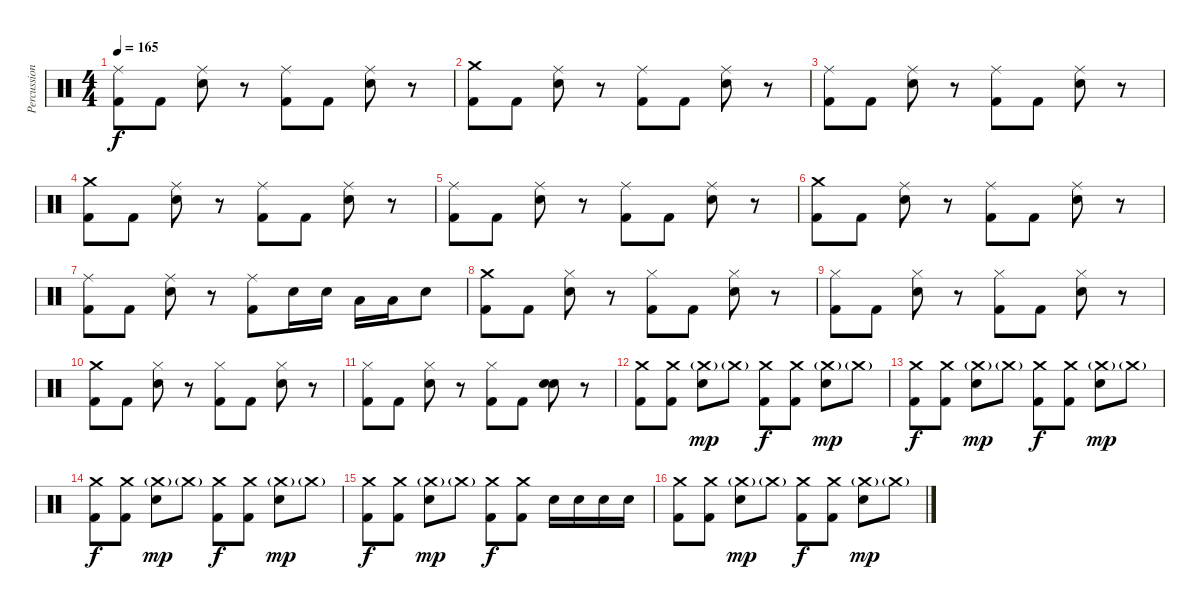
\track ("Percussion" "Percussion") {instrument percussion}
\staff {score}
\articulation defaults
\ts (4 4)
\tempo 165
\clef neutral
\ks c
("Ride (middle)" "Kick (hit) 2").8{dy f} "Kick (hit) 2".8 ("Ride (middle)" "Electric Snare (hit)").8 r.8 ("Ride (middle)" "Kick (hit) 2").8 "Kick (hit) 2".8 ("Ride (middle)" "Electric Snare (hit)").8 r.8 |
("Crash medium (hit)" "Kick (hit) 2").8 "Kick (hit) 2".8 ("Ride (middle)" "Electric Snare (hit)").8 r.8 ("Ride (middle)" "Kick (hit) 2").8 "Kick (hit) 2".8 ("Ride (middle)" "Electric Snare (hit)").8 r.8 |
("Ride (middle)" "Kick (hit) 2").8 "Kick (hit) 2".8 ("Ride (middle)" "Electric Snare (hit)").8 r.8 ("Ride (middle)" "Kick (hit) 2").8 "Kick (hit) 2".8 ("Ride (middle)" "Electric Snare (hit)").8 r.8 |
("Crash medium (hit)" "Kick (hit) 2").8 "Kick (hit) 2".8 ("Ride (middle)" "Electric Snare (hit)").8 r.8 ("Ride (middle)" "Kick (hit) 2").8 "Kick (hit) 2".8 ("Ride (middle)" "Electric Snare (hit)").8 r.8 |
("Ride (middle)" "Kick (hit) 2").8 "Kick (hit) 2".8 ("Ride (middle)" "Electric Snare (hit)").8 r.8 ("Ride (middle)" "Kick (hit) 2").8 "Kick (hit) 2".8 ("Ride (middle)" "Electric Snare (hit)").8 r.8 |
("Crash medium (hit)" "Kick (hit) 2").8 "Kick (hit) 2".8 ("Ride (middle)" "Electric Snare (hit)").8 r.8 ("Ride (middle)" "Kick (hit) 2").8 "Kick (hit) 2".8 ("Ride (middle)" "Electric Snare (hit)").8 r.8 |
("Ride (middle)" "Kick (hit) 2").8 "Kick (hit) 2".8 ("Ride (middle)" "Electric Snare (hit)").8 r.8 ("Ride (middle)" "Kick (hit) 2").8 "Electric Snare (hit)".16 "Electric Snare (hit)".16 "Low Tom (hit)".16 "Low Tom (hit)".16 "Electric Snare (hit)".8 |
("Crash medium (hit)" "Kick (hit) 2").8 "Kick (hit) 2".8 ("Hi-Hat (closed)" "Electric Snare (hit)").8 r.8 ("Hi-Hat (closed)" "Kick (hit) 2").8 "Kick (hit) 2".8 ("Hi-Hat (closed)" "Electric Snare (hit)").8 r.8 |
("Hi-Hat (closed)" "Kick (hit) 2").8 "Kick (hit) 2".8 ("Hi-Hat (closed)" "Electric Snare (hit)").8 r.8 ("Hi-Hat (closed)" "Kick (hit) 2").8 "Kick (hit) 2".8 ("Hi-Hat (closed)" "Electric Snare (hit)").8 r.8 |
("Crash medium (hit)" "Kick (hit) 2").8 "Kick (hit) 2".8 ("Hi-Hat (closed)" "Electric Snare (hit)").8 r.8 ("Hi-Hat (closed)" "Kick (hit) 2").8 "Kick (hit) 2".8 ("Hi-Hat (closed)" "Electric Snare (hit)").8 r.8 |
("Hi-Hat (closed)" "Kick (hit) 2").8 "Kick (hit) 2".8 ("Hi-Hat (closed)" "Electric Snare (hit)").8 r.8 ("Hi-Hat (closed)" "Kick (hit) 2").8 "Kick (hit) 2".8 ("Electric Snare (hit)" "Electric Snare (hit)").8{bd 240} r.8 |
("Crash medium (hit)" "Kick (hit) 2").8 ("Crash medium (hit)" "Kick (hit) 2").8 ("Crash medium (hit)"{g} "Electric Snare (hit)").8{dy mp} "Crash medium (hit)"{g}.8 ("Crash medium (hit)" "Kick (hit) 2").8{dy f} ("Crash medium (hit)" "Kick (hit) 2").8 ("Crash medium (hit)"{g} "Electric Snare (hit)").8{dy mp} "Crash medium (hit)"{g}.8 |
("Crash medium (hit)" "Kick (hit) 2").8{dy f} ("Crash medium (hit)" "Kick (hit) 2").8 ("Crash medium (hit)"{g} "Electric Snare (hit)").8{dy mp} "Crash medium (hit)"{g}.8 ("Crash medium (hit)" "Kick (hit) 2").8{dy f} ("Crash medium (hit)" "Kick (hit) 2").8 ("Crash medium (hit)"{g} "Electric Snare (hit)").8{dy mp} "Crash medium (hit)"{g}.8 |
("Crash medium (hit)" "Kick (hit) 2").8{dy f} ("Crash medium (hit)" "Kick (hit) 2").8 ("Crash medium (hit)"{g} "Electric Snare (hit)").8{dy mp} "Crash medium (hit)"{g}.8 ("Crash medium (hit)" "Kick (hit) 2").8{dy f} ("Crash medium (hit)" "Kick (hit) 2").8 ("Crash medium (hit)"{g} "Electric Snare (hit)").8{dy mp} "Crash medium (hit)"{g}.8 |
("Crash medium (hit)" "Kick (hit) 2").8{dy f} ("Crash medium (hit)" "Kick (hit) 2").8 ("Crash medium (hit)"{g} "Electric Snare (hit)").8{dy mp} "Crash medium (hit)"{g}.8 ("Crash medium (hit)" "Kick (hit) 2").8{dy f} ("Crash medium (hit)" "Kick (hit) 2").8 "Electric Snare (hit)".16 "Electric Snare (hit)".16 "Electric Snare (hit)".16 "Electric Snare (hit)".16 |
("Crash medium (hit)" "Kick (hit) 2").8 ("Crash medium (hit)" "Kick (hit) 2").8 ("Crash medium (hit)"{g} "Electric Snare (hit)").8{dy mp} "Crash medium (hit)"{g}.8 ("Crash medium (hit)" "Kick (hit) 2").8{dy f} ("Crash medium (hit)" "Kick (hit) 2").8 ("Crash medium (hit)"{g} "Electric Snare (hit)").8{dy mp} "Crash medium (hit)"{g}.8
